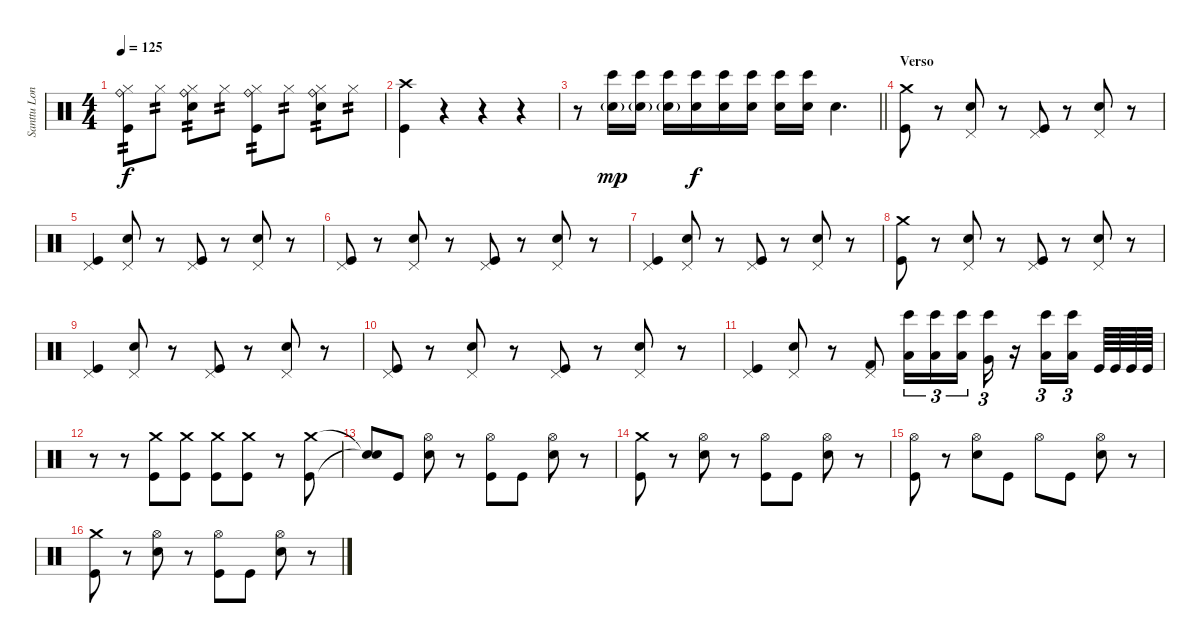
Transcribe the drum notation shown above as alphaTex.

\track ("Santtu Lonka" "Santtu Lon") {instrument percussion}
\staff {score}
\articulation defaults
\ts (4 4)
\tempo 125
\clef neutral
\ks c
("Ride (bell)" "Hi-Hat (closed)" "Kick (hit)").8{tp 2 dy f} "Hi-Hat (closed)".8{tp 2} ("Ride (bell)" "Hi-Hat (closed)" "Electric Snare (hit)").8{tp 2} "Hi-Hat (closed)".8{tp 2} ("Ride (bell)" "Hi-Hat (closed)" "Kick (hit)").8{tp 2} "Hi-Hat (closed)".8{tp 2} ("Ride (bell)" "Hi-Hat (closed)" "Electric Snare (hit)").8{tp 2} "Hi-Hat (closed)".8{tp 2} |
("Crash high (hit)" "Kick (hit)").4 r.4 r.4 r.4 |
\barLineRight lightlight
r.8 ("Electric Snare (hit)"{g} "Bongo High (hit)").16{dy mp} ("Electric Snare (hit)"{g} "Bongo High (hit)").16 ("Electric Snare (hit)"{g} "Bongo High (hit)").16 ("Electric Snare (hit)" "Bongo High (hit)").16{dy f} ("Electric Snare (hit)" "Bongo High (hit)").16 ("Electric Snare (hit)" "Bongo High (hit)").16 ("Electric Snare (hit)" "Bongo High (hit)").16 ("Electric Snare (hit)" "Bongo High (hit)").16 "Electric Snare (hit)".4{d} |
\section ("" "Verso")
("Crash medium (hit)" "Kick (hit)").8 r.8 ("Pedal Hi-Hat (hit)" "Electric Snare (hit)").8 r.8 ("Pedal Hi-Hat (hit)" "Kick (hit)").8 r.8 ("Pedal Hi-Hat (hit)" "Electric Snare (hit)").8 r.8 |
("Pedal Hi-Hat (hit)" "Kick (hit)").4 ("Pedal Hi-Hat (hit)" "Electric Snare (hit)").8 r.8 ("Pedal Hi-Hat (hit)" "Kick (hit)").8 r.8 ("Pedal Hi-Hat (hit)" "Electric Snare (hit)").8 r.8 |
("Pedal Hi-Hat (hit)" "Kick (hit)").8 r.8 ("Pedal Hi-Hat (hit)" "Electric Snare (hit)").8 r.8 ("Pedal Hi-Hat (hit)" "Kick (hit)").8 r.8 ("Pedal Hi-Hat (hit)" "Electric Snare (hit)").8 r.8 |
("Pedal Hi-Hat (hit)" "Kick (hit)").4 ("Pedal Hi-Hat (hit)" "Electric Snare (hit)").8 r.8 ("Pedal Hi-Hat (hit)" "Kick (hit)").8 r.8 ("Pedal Hi-Hat (hit)" "Electric Snare (hit)").8 r.8 |
("Crash medium (hit)" "Kick (hit)").8 r.8 ("Pedal Hi-Hat (hit)" "Electric Snare (hit)").8 r.8 ("Pedal Hi-Hat (hit)" "Kick (hit)").8 r.8 ("Pedal Hi-Hat (hit)" "Electric Snare (hit)").8 r.8 |
("Pedal Hi-Hat (hit)" "Kick (hit)").4 ("Pedal Hi-Hat (hit)" "Electric Snare (hit)").8 r.8 ("Pedal Hi-Hat (hit)" "Kick (hit)").8 r.8 ("Pedal Hi-Hat (hit)" "Electric Snare (hit)").8 r.8 |
("Pedal Hi-Hat (hit)" "Kick (hit)").8 r.8 ("Pedal Hi-Hat (hit)" "Electric Snare (hit)").8 r.8 ("Pedal Hi-Hat (hit)" "Kick (hit)").8 r.8 ("Pedal Hi-Hat (hit)" "Electric Snare (hit)").8 r.8 |
("Pedal Hi-Hat (hit)" "Kick (hit)").4 ("Pedal Hi-Hat (hit)" "Electric Snare (hit)").8 r.8 ("Pedal Hi-Hat (hit)" "Kick (hit) 2").8 ("Low Tom (hit)" "Bongo High (hit)").16{tu (3 2)} ("Low Tom (hit)" "Bongo High (hit)").16{tu (3 2)} ("Low Tom (hit)" "Bongo High (hit)").16{tu (3 2)} ("Very Low Tom (hit)" "Bongo High (hit)").16{tu (3 2)} r.16 ("Low Tom (hit)" "Bongo High (hit)").16{tu (3 2)} ("Low Tom (hit)" "Bongo High (hit)").16{tu (3 2) beam splitsecondary} "Kick (hit)".64 "Kick (hit)".64 "Kick (hit)".64 "Kick (hit)".64 |
r.8 r.8 ("Crash medium (hit)" "Kick (hit)").8 ("Crash medium (hit)" "Kick (hit)").8 ("Crash medium (hit)" "Kick (hit)").8 ("Crash medium (hit)" "Kick (hit)").8 r.8 ("Crash medium (hit)" "Kick (hit)").8 |
("Snare (hit)"{t} "Snare (hit)"{t}).8 "Kick (hit)".8 ("Hi-Hat (open)" "Electric Snare (hit)").8 r.8 ("Hi-Hat (open)" "Kick (hit)").8 "Kick (hit)".8 ("Hi-Hat (open)" "Electric Snare (hit)").8 r.8 |
("Crash medium (hit)" "Kick (hit)").8 r.8 ("Hi-Hat (open)" "Electric Snare (hit)").8 r.8 ("Hi-Hat (open)" "Kick (hit)").8 "Kick (hit)".8 ("Hi-Hat (open)" "Electric Snare (hit)").8 r.8 |
("Hi-Hat (open)" "Kick (hit)").8 r.8 ("Hi-Hat (open)" "Electric Snare (hit)").8 "Kick (hit)".8 "Hi-Hat (open)".8 "Kick (hit)".8 ("Hi-Hat (open)" "Electric Snare (hit)").8 r.8 |
("Crash medium (hit)" "Kick (hit)").8 r.8 ("Hi-Hat (open)" "Electric Snare (hit)").8 r.8 ("Hi-Hat (open)" "Kick (hit)").8 "Kick (hit)".8 ("Hi-Hat (open)" "Electric Snare (hit)").8 r.8
